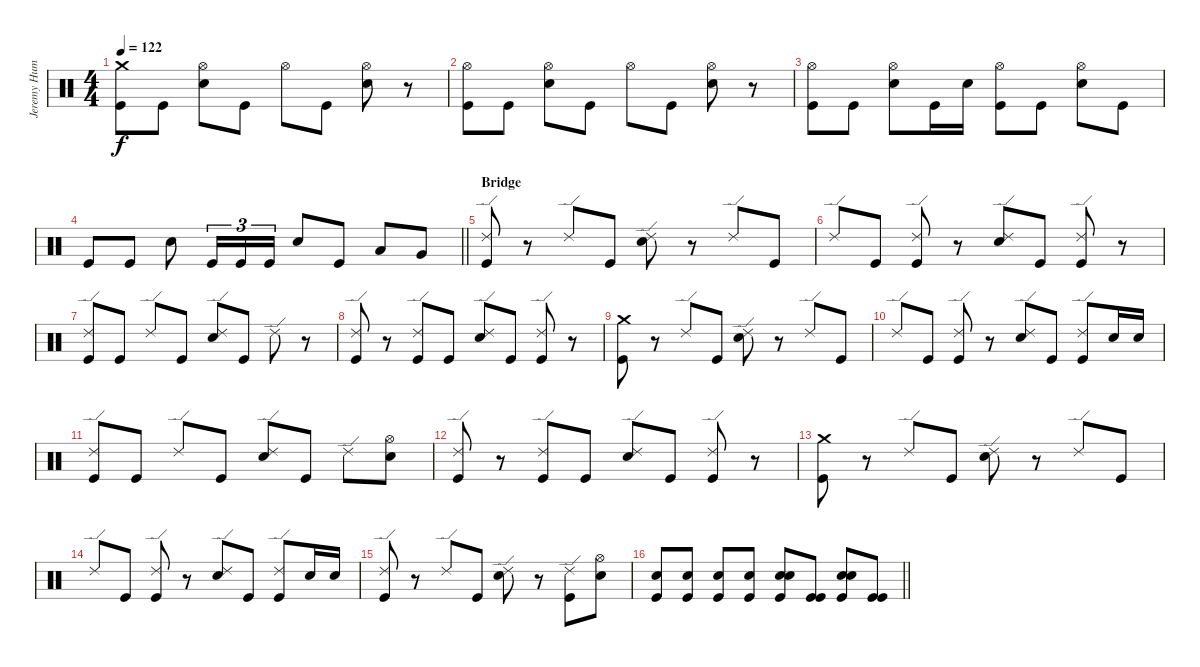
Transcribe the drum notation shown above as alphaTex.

\track ("Jeremy Hummel Drums]" "Jeremy Hum") {instrument percussion}
\staff {score}
\articulation defaults
\ts (4 4)
\tempo 122
\clef neutral
\ks c
("Crash medium (hit)" "Kick (hit)").8{dy f} "Kick (hit)".8 ("Hi-Hat (open)" "Electric Snare (hit)").8 "Kick (hit)".8 "Hi-Hat (open)".8 "Kick (hit)".8 ("Hi-Hat (open)" "Electric Snare (hit)").8 r.8 |
("Hi-Hat (open)" "Kick (hit)").8 "Kick (hit)".8 ("Hi-Hat (open)" "Electric Snare (hit)").8 "Kick (hit)".8 "Hi-Hat (open)".8 "Kick (hit)".8 ("Hi-Hat (open)" "Electric Snare (hit)").8 r.8 |
("Hi-Hat (open)" "Kick (hit)").8 "Kick (hit)".8 ("Hi-Hat (open)" "Electric Snare (hit)").8 "Kick (hit)".16 "Electric Snare (hit)".16 ("Hi-Hat (open)" "Kick (hit)").8 "Kick (hit)".8 ("Hi-Hat (open)" "Electric Snare (hit)").8 "Kick (hit)".8 |
\barLineRight lightlight "Kick (hit)".8 "Kick (hit)".8 "Electric Snare (hit)".8 "Kick (hit)".16{tu (3 2)} "Kick (hit)".16{tu (3 2)} "Kick (hit)".16{tu (3 2)} "Electric Snare (hit)".8 "Kick (hit)".8 "Low Tom (hit)".8 "Very Low Tom (hit)".8
|
\section ("" "Bridge")
("Ride (edge) 2" "Kick (hit)").8 r.8 "Ride (edge) 2".8 "Kick (hit)".8 ("Ride (edge) 2" "Electric Snare (hit)").8 r.8 "Ride (edge) 2".8 "Kick (hit)".8 |
"Ride (edge) 2".8 "Kick (hit)".8 ("Ride (edge) 2" "Kick (hit)").8 r.8 ("Ride (edge) 2" "Electric Snare (hit)").8 "Kick (hit)".8 ("Ride (edge) 2" "Kick (hit)").8 r.8 |
("Ride (edge) 2" "Kick (hit)").8 "Kick (hit)".8 "Ride (edge) 2".8 "Kick (hit)".8 ("Ride (edge) 2" "Electric Snare (hit)").8 "Kick (hit)".8 "Ride (edge) 2".8 r.8 |
("Ride (edge) 2" "Kick (hit)").8 r.8 ("Ride (edge) 2" "Kick (hit)").8 "Kick (hit)".8 ("Ride (edge) 2" "Electric Snare (hit)").8 "Kick (hit)".8 ("Ride (edge) 2" "Kick (hit)").8 r.8 |
("Crash medium (hit)" "Kick (hit)").8 r.8 "Ride (edge) 2".8 "Kick (hit)".8 ("Ride (edge) 2" "Electric Snare (hit)").8 r.8 "Ride (edge) 2".8 "Kick (hit)".8 |
"Ride (edge) 2".8 "Kick (hit)".8 ("Ride (edge) 2" "Kick (hit)").8 r.8 ("Ride (edge) 2" "Electric Snare (hit)").8 "Kick (hit)".8 ("Ride (edge) 2" "Kick (hit)").8 "Electric Snare (hit)".16 "Electric Snare (hit)".16 |
("Ride (edge) 2" "Kick (hit)").8 "Kick (hit)".8 "Ride (edge) 2".8 "Kick (hit)".8 ("Ride (edge) 2" "Electric Snare (hit)").8 "Kick (hit)".8 "Ride (edge) 2".8 ("Hi-Hat (open)" "Electric Snare (hit)").8 |
("Ride (edge) 2" "Kick (hit)").8 r.8 ("Ride (edge) 2" "Kick (hit)").8 "Kick (hit)".8 ("Ride (edge) 2" "Electric Snare (hit)").8 "Kick (hit)".8 ("Ride (edge) 2" "Kick (hit)").8 r.8 |
("Crash medium (hit)" "Kick (hit)").8 r.8 "Ride (edge) 2".8 "Kick (hit)".8 ("Ride (edge) 2" "Electric Snare (hit)").8 r.8 "Ride (edge) 2".8 "Kick (hit)".8 |
"Ride (edge) 2".8 "Kick (hit)".8 ("Ride (edge) 2" "Kick (hit)").8 r.8 ("Ride (edge) 2" "Electric Snare (hit)").8 "Kick (hit)".8 ("Ride (edge) 2" "Kick (hit)").8 "Electric Snare (hit)".16 "Electric Snare (hit)".16 |
("Ride (edge) 2" "Kick (hit)").8 r.8 "Ride (edge) 2".8 "Kick (hit)".8 ("Ride (edge) 2" "Electric Snare (hit)").8 r.8 ("Ride (edge) 2" "Kick (hit)").8 ("Hi-Hat (open)" "Electric Snare (hit)").8 |
\barLineRight lightlight
("Electric Snare (hit)" "Kick (hit)").8 ("Electric Snare (hit)" "Kick (hit)").8 ("Electric Snare (hit)" "Kick (hit)").8 ("Electric Snare (hit)" "Kick (hit)").8 ("Electric Snare (hit)" "Electric Snare (hit)" "Kick (hit)").8 ("Kick (hit)" "Kick (hit)").8 ("Electric Snare (hit)" "Electric Snare (hit)" "Kick (hit)").8 ("Kick (hit)" "Kick (hit)").8
